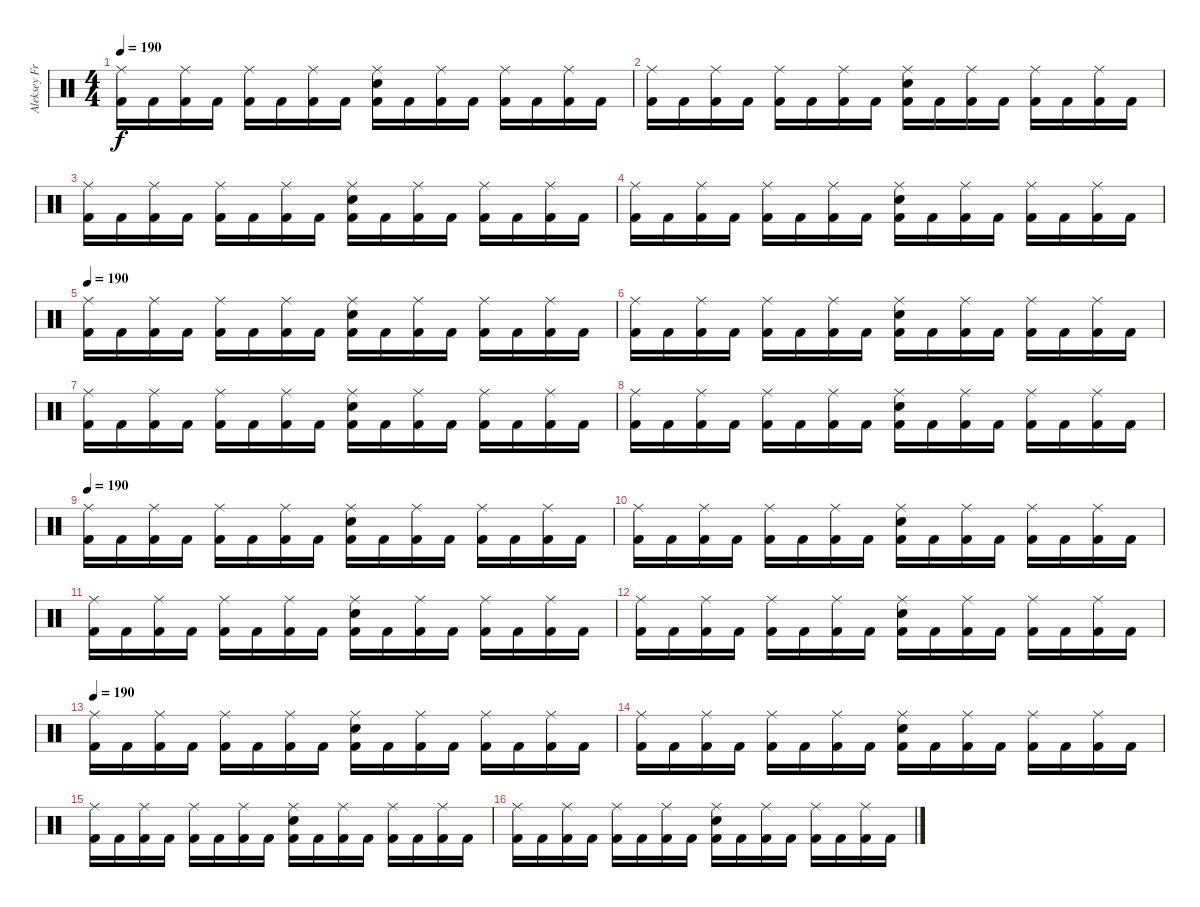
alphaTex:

\track ("Aleksey Frolov" "Aleksey Fr") {instrument percussion}
\staff {score}
\articulation defaults
\ts (4 4)
\tempo 190
\clef neutral
\ks c
("Kick (hit) 2" "Ride (middle)").16{dy f} "Kick (hit) 2".16 ("Kick (hit) 2" "Ride (middle)").16 "Kick (hit) 2".16 ("Kick (hit) 2" "Ride (middle)").16 "Kick (hit) 2".16 ("Kick (hit) 2" "Ride (middle)").16 "Kick (hit) 2".16 ("Kick (hit) 2" "Electric Snare (hit)" "Ride (middle)").16 "Kick (hit) 2".16 ("Kick (hit) 2" "Ride (middle)").16 "Kick (hit) 2".16 ("Kick (hit) 2" "Ride (middle)").16 "Kick (hit) 2".16 ("Kick (hit) 2" "Ride (middle)").16 "Kick (hit) 2".16 |
("Kick (hit) 2" "Ride (middle)").16 "Kick (hit) 2".16 ("Kick (hit) 2" "Ride (middle)").16 "Kick (hit) 2".16 ("Kick (hit) 2" "Ride (middle)").16 "Kick (hit) 2".16 ("Kick (hit) 2" "Ride (middle)").16 "Kick (hit) 2".16 ("Kick (hit) 2" "Electric Snare (hit)" "Ride (middle)").16 "Kick (hit) 2".16 ("Kick (hit) 2" "Ride (middle)").16 "Kick (hit) 2".16 ("Kick (hit) 2" "Ride (middle)").16 "Kick (hit) 2".16 ("Kick (hit) 2" "Ride (middle)").16 "Kick (hit) 2".16 |
("Kick (hit) 2" "Ride (middle)").16 "Kick (hit) 2".16 ("Kick (hit) 2" "Ride (middle)").16 "Kick (hit) 2".16 ("Kick (hit) 2" "Ride (middle)").16 "Kick (hit) 2".16 ("Kick (hit) 2" "Ride (middle)").16 "Kick (hit) 2".16 ("Kick (hit) 2" "Electric Snare (hit)" "Ride (middle)").16 "Kick (hit) 2".16 ("Kick (hit) 2" "Ride (middle)").16 "Kick (hit) 2".16 ("Kick (hit) 2" "Ride (middle)").16 "Kick (hit) 2".16 ("Kick (hit) 2" "Ride (middle)").16 "Kick (hit) 2".16 |
("Kick (hit) 2" "Ride (middle)").16 "Kick (hit) 2".16 ("Kick (hit) 2" "Ride (middle)").16 "Kick (hit) 2".16 ("Kick (hit) 2" "Ride (middle)").16 "Kick (hit) 2".16 ("Kick (hit) 2" "Ride (middle)").16 "Kick (hit) 2".16 ("Kick (hit) 2" "Electric Snare (hit)" "Ride (middle)").16 "Kick (hit) 2".16 ("Kick (hit) 2" "Ride (middle)").16 "Kick (hit) 2".16 ("Kick (hit) 2" "Ride (middle)").16 "Kick (hit) 2".16 ("Kick (hit) 2" "Ride (middle)").16 "Kick (hit) 2".16 |
\tempo 190
("Kick (hit) 2" "Ride (middle)").16 "Kick (hit) 2".16 ("Kick (hit) 2" "Ride (middle)").16 "Kick (hit) 2".16 ("Kick (hit) 2" "Ride (middle)").16 "Kick (hit) 2".16 ("Kick (hit) 2" "Ride (middle)").16 "Kick (hit) 2".16 ("Kick (hit) 2" "Electric Snare (hit)" "Ride (middle)").16 "Kick (hit) 2".16 ("Kick (hit) 2" "Ride (middle)").16 "Kick (hit) 2".16 ("Kick (hit) 2" "Ride (middle)").16 "Kick (hit) 2".16 ("Kick (hit) 2" "Ride (middle)").16 "Kick (hit) 2".16 |
("Kick (hit) 2" "Ride (middle)").16 "Kick (hit) 2".16 ("Kick (hit) 2" "Ride (middle)").16 "Kick (hit) 2".16 ("Kick (hit) 2" "Ride (middle)").16 "Kick (hit) 2".16 ("Kick (hit) 2" "Ride (middle)").16 "Kick (hit) 2".16 ("Kick (hit) 2" "Electric Snare (hit)" "Ride (middle)").16 "Kick (hit) 2".16 ("Kick (hit) 2" "Ride (middle)").16 "Kick (hit) 2".16 ("Kick (hit) 2" "Ride (middle)").16 "Kick (hit) 2".16 ("Kick (hit) 2" "Ride (middle)").16 "Kick (hit) 2".16 |
("Kick (hit) 2" "Ride (middle)").16 "Kick (hit) 2".16 ("Kick (hit) 2" "Ride (middle)").16 "Kick (hit) 2".16 ("Kick (hit) 2" "Ride (middle)").16 "Kick (hit) 2".16 ("Kick (hit) 2" "Ride (middle)").16 "Kick (hit) 2".16 ("Kick (hit) 2" "Electric Snare (hit)" "Ride (middle)").16 "Kick (hit) 2".16 ("Kick (hit) 2" "Ride (middle)").16 "Kick (hit) 2".16 ("Kick (hit) 2" "Ride (middle)").16 "Kick (hit) 2".16 ("Kick (hit) 2" "Ride (middle)").16 "Kick (hit) 2".16 |
("Kick (hit) 2" "Ride (middle)").16 "Kick (hit) 2".16 ("Kick (hit) 2" "Ride (middle)").16 "Kick (hit) 2".16 ("Kick (hit) 2" "Ride (middle)").16 "Kick (hit) 2".16 ("Kick (hit) 2" "Ride (middle)").16 "Kick (hit) 2".16 ("Kick (hit) 2" "Electric Snare (hit)" "Ride (middle)").16 "Kick (hit) 2".16 ("Kick (hit) 2" "Ride (middle)").16 "Kick (hit) 2".16 ("Kick (hit) 2" "Ride (middle)").16 "Kick (hit) 2".16 ("Kick (hit) 2" "Ride (middle)").16 "Kick (hit) 2".16 |
\tempo 190
("Kick (hit) 2" "Ride (middle)").16 "Kick (hit) 2".16 ("Kick (hit) 2" "Ride (middle)").16 "Kick (hit) 2".16 ("Kick (hit) 2" "Ride (middle)").16 "Kick (hit) 2".16 ("Kick (hit) 2" "Ride (middle)").16 "Kick (hit) 2".16 ("Kick (hit) 2" "Electric Snare (hit)" "Ride (middle)").16 "Kick (hit) 2".16 ("Kick (hit) 2" "Ride (middle)").16 "Kick (hit) 2".16 ("Kick (hit) 2" "Ride (middle)").16 "Kick (hit) 2".16 ("Kick (hit) 2" "Ride (middle)").16 "Kick (hit) 2".16 |
("Kick (hit) 2" "Ride (middle)").16 "Kick (hit) 2".16 ("Kick (hit) 2" "Ride (middle)").16 "Kick (hit) 2".16 ("Kick (hit) 2" "Ride (middle)").16 "Kick (hit) 2".16 ("Kick (hit) 2" "Ride (middle)").16 "Kick (hit) 2".16 ("Kick (hit) 2" "Electric Snare (hit)" "Ride (middle)").16 "Kick (hit) 2".16 ("Kick (hit) 2" "Ride (middle)").16 "Kick (hit) 2".16 ("Kick (hit) 2" "Ride (middle)").16 "Kick (hit) 2".16 ("Kick (hit) 2" "Ride (middle)").16 "Kick (hit) 2".16 |
("Kick (hit) 2" "Ride (middle)").16 "Kick (hit) 2".16 ("Kick (hit) 2" "Ride (middle)").16 "Kick (hit) 2".16 ("Kick (hit) 2" "Ride (middle)").16 "Kick (hit) 2".16 ("Kick (hit) 2" "Ride (middle)").16 "Kick (hit) 2".16 ("Kick (hit) 2" "Electric Snare (hit)" "Ride (middle)").16 "Kick (hit) 2".16 ("Kick (hit) 2" "Ride (middle)").16 "Kick (hit) 2".16 ("Kick (hit) 2" "Ride (middle)").16 "Kick (hit) 2".16 ("Kick (hit) 2" "Ride (middle)").16 "Kick (hit) 2".16 |
("Kick (hit) 2" "Ride (middle)").16 "Kick (hit) 2".16 ("Kick (hit) 2" "Ride (middle)").16 "Kick (hit) 2".16 ("Kick (hit) 2" "Ride (middle)").16 "Kick (hit) 2".16 ("Kick (hit) 2" "Ride (middle)").16 "Kick (hit) 2".16 ("Kick (hit) 2" "Electric Snare (hit)" "Ride (middle)").16 "Kick (hit) 2".16 ("Kick (hit) 2" "Ride (middle)").16 "Kick (hit) 2".16 ("Kick (hit) 2" "Ride (middle)").16 "Kick (hit) 2".16 ("Kick (hit) 2" "Ride (middle)").16 "Kick (hit) 2".16 |
\tempo 190
("Kick (hit) 2" "Ride (middle)").16 "Kick (hit) 2".16 ("Kick (hit) 2" "Ride (middle)").16 "Kick (hit) 2".16 ("Kick (hit) 2" "Ride (middle)").16 "Kick (hit) 2".16 ("Kick (hit) 2" "Ride (middle)").16 "Kick (hit) 2".16 ("Kick (hit) 2" "Electric Snare (hit)" "Ride (middle)").16 "Kick (hit) 2".16 ("Kick (hit) 2" "Ride (middle)").16 "Kick (hit) 2".16 ("Kick (hit) 2" "Ride (middle)").16 "Kick (hit) 2".16 ("Kick (hit) 2" "Ride (middle)").16 "Kick (hit) 2".16 |
("Kick (hit) 2" "Ride (middle)").16 "Kick (hit) 2".16 ("Kick (hit) 2" "Ride (middle)").16 "Kick (hit) 2".16 ("Kick (hit) 2" "Ride (middle)").16 "Kick (hit) 2".16 ("Kick (hit) 2" "Ride (middle)").16 "Kick (hit) 2".16 ("Kick (hit) 2" "Electric Snare (hit)" "Ride (middle)").16 "Kick (hit) 2".16 ("Kick (hit) 2" "Ride (middle)").16 "Kick (hit) 2".16 ("Kick (hit) 2" "Ride (middle)").16 "Kick (hit) 2".16 ("Kick (hit) 2" "Ride (middle)").16 "Kick (hit) 2".16 |
("Kick (hit) 2" "Ride (middle)").16 "Kick (hit) 2".16 ("Kick (hit) 2" "Ride (middle)").16 "Kick (hit) 2".16 ("Kick (hit) 2" "Ride (middle)").16 "Kick (hit) 2".16 ("Kick (hit) 2" "Ride (middle)").16 "Kick (hit) 2".16 ("Kick (hit) 2" "Electric Snare (hit)" "Ride (middle)").16 "Kick (hit) 2".16 ("Kick (hit) 2" "Ride (middle)").16 "Kick (hit) 2".16 ("Kick (hit) 2" "Ride (middle)").16 "Kick (hit) 2".16 ("Kick (hit) 2" "Ride (middle)").16 "Kick (hit) 2".16 |
("Kick (hit) 2" "Ride (middle)").16 "Kick (hit) 2".16 ("Kick (hit) 2" "Ride (middle)").16 "Kick (hit) 2".16 ("Kick (hit) 2" "Ride (middle)").16 "Kick (hit) 2".16 ("Kick (hit) 2" "Ride (middle)").16 "Kick (hit) 2".16 ("Kick (hit) 2" "Electric Snare (hit)" "Ride (middle)").16 "Kick (hit) 2".16 ("Kick (hit) 2" "Ride (middle)").16 "Kick (hit) 2".16 ("Kick (hit) 2" "Ride (middle)").16 "Kick (hit) 2".16 ("Kick (hit) 2" "Ride (middle)").16 "Kick (hit) 2".16
